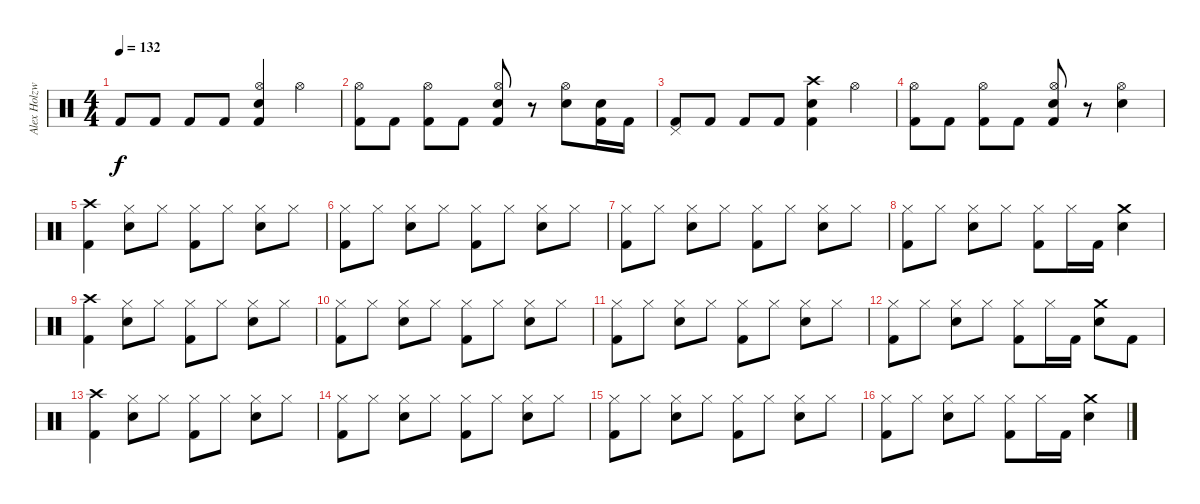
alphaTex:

\track ("Alex Holzwarth" "Alex Holzw") {instrument percussion}
\staff {score}
\articulation defaults
\ts (4 4)
\tempo 132
\clef neutral
\ks c "Kick (hit) 2".8{dy f} "Kick (hit) 2".8 "Kick (hit) 2".8 "Kick (hit) 2".8
("Hi-Hat (open)" "Snare (hit) 2" "Kick (hit) 2").4 "Hi-Hat (open)".4 |
("Hi-Hat (open)" "Kick (hit) 2").8 "Kick (hit) 2".8 ("Hi-Hat (open)" "Kick (hit) 2").8 "Kick (hit) 2".8 ("Hi-Hat (open)" "Snare (hit) 2" "Kick (hit) 2").8 r.8 ("Hi-Hat (open)" "Snare (hit) 2").8 ("Snare (hit) 2" "Kick (hit) 2").16 "Kick (hit) 2".16 |
("Pedal Hi-Hat (hit)" "Kick (hit) 2").8 "Kick (hit) 2".8 "Kick (hit) 2".8 "Kick (hit) 2".8 ("Crash high (hit)" "Snare (hit) 2" "Kick (hit) 2").4 "Hi-Hat (open)".4 |
("Hi-Hat (open)" "Kick (hit) 2").8 "Kick (hit) 2".8 ("Hi-Hat (open)" "Kick (hit) 2").8 "Kick (hit) 2".8 ("Hi-Hat (open)" "Snare (hit) 2" "Kick (hit) 2").8 r.8 ("Hi-Hat (open)" "Snare (hit) 2").4 |
("Crash high (hit)" "Kick (hit) 2").4 ("Hi-Hat (closed)" "Snare (hit) 2").8 "Hi-Hat (closed)".8 ("Hi-Hat (closed)" "Kick (hit) 2").8 "Hi-Hat (closed)".8 ("Hi-Hat (closed)" "Snare (hit) 2").8 "Hi-Hat (closed)".8 |
("Hi-Hat (closed)" "Kick (hit) 2").8 "Hi-Hat (closed)".8 ("Hi-Hat (closed)" "Snare (hit) 2").8 "Hi-Hat (closed)".8 ("Hi-Hat (closed)" "Kick (hit) 2").8 "Hi-Hat (closed)".8 ("Hi-Hat (closed)" "Snare (hit) 2").8 "Hi-Hat (closed)".8 |
("Hi-Hat (closed)" "Kick (hit) 2").8 "Hi-Hat (closed)".8 ("Hi-Hat (closed)" "Snare (hit) 2").8 "Hi-Hat (closed)".8 ("Hi-Hat (closed)" "Kick (hit) 2").8 "Hi-Hat (closed)".8 ("Hi-Hat (closed)" "Snare (hit) 2").8 "Hi-Hat (closed)".8 |
("Hi-Hat (closed)" "Kick (hit) 2").8 "Hi-Hat (closed)".8 ("Hi-Hat (closed)" "Snare (hit) 2").8 "Hi-Hat (closed)".8 ("Hi-Hat (closed)" "Kick (hit) 2").8 "Hi-Hat (closed)".16 "Kick (hit) 2".16 ("Crash medium (hit)" "Snare (hit) 2").4 |
("Crash high (hit)" "Kick (hit) 2").4 ("Hi-Hat (closed)" "Snare (hit) 2").8 "Hi-Hat (closed)".8 ("Hi-Hat (closed)" "Kick (hit) 2").8 "Hi-Hat (closed)".8 ("Hi-Hat (closed)" "Snare (hit) 2").8 "Hi-Hat (closed)".8 |
("Hi-Hat (closed)" "Kick (hit) 2").8 "Hi-Hat (closed)".8 ("Hi-Hat (closed)" "Snare (hit) 2").8 "Hi-Hat (closed)".8 ("Hi-Hat (closed)" "Kick (hit) 2").8 "Hi-Hat (closed)".8 ("Hi-Hat (closed)" "Snare (hit) 2").8 "Hi-Hat (closed)".8 |
("Hi-Hat (closed)" "Kick (hit) 2").8 "Hi-Hat (closed)".8 ("Hi-Hat (closed)" "Snare (hit) 2").8 "Hi-Hat (closed)".8 ("Hi-Hat (closed)" "Kick (hit) 2").8 "Hi-Hat (closed)".8 ("Hi-Hat (closed)" "Snare (hit) 2").8 "Hi-Hat (closed)".8 |
("Hi-Hat (closed)" "Kick (hit) 2").8 "Hi-Hat (closed)".8 ("Hi-Hat (closed)" "Snare (hit) 2").8 "Hi-Hat (closed)".8 ("Hi-Hat (closed)" "Kick (hit) 2").8 "Hi-Hat (closed)".16 "Kick (hit) 2".16 ("Crash medium (hit)" "Snare (hit) 2").8 "Kick (hit) 2".8 |
("Crash high (hit)" "Kick (hit) 2").4 ("Hi-Hat (closed)" "Snare (hit) 2").8 "Hi-Hat (closed)".8 ("Hi-Hat (closed)" "Kick (hit) 2").8 "Hi-Hat (closed)".8 ("Hi-Hat (closed)" "Snare (hit) 2").8 "Hi-Hat (closed)".8 |
("Hi-Hat (closed)" "Kick (hit) 2").8 "Hi-Hat (closed)".8 ("Hi-Hat (closed)" "Snare (hit) 2").8 "Hi-Hat (closed)".8 ("Hi-Hat (closed)" "Kick (hit) 2").8 "Hi-Hat (closed)".8 ("Hi-Hat (closed)" "Snare (hit) 2").8 "Hi-Hat (closed)".8 |
("Hi-Hat (closed)" "Kick (hit) 2").8 "Hi-Hat (closed)".8 ("Hi-Hat (closed)" "Snare (hit) 2").8 "Hi-Hat (closed)".8 ("Hi-Hat (closed)" "Kick (hit) 2").8 "Hi-Hat (closed)".8 ("Hi-Hat (closed)" "Snare (hit) 2").8 "Hi-Hat (closed)".8 |
("Hi-Hat (closed)" "Kick (hit) 2").8 "Hi-Hat (closed)".8 ("Hi-Hat (closed)" "Snare (hit) 2").8 "Hi-Hat (closed)".8 ("Hi-Hat (closed)" "Kick (hit) 2").8 "Hi-Hat (closed)".16 "Kick (hit) 2".16 ("Crash medium (hit)" "Snare (hit) 2").4
